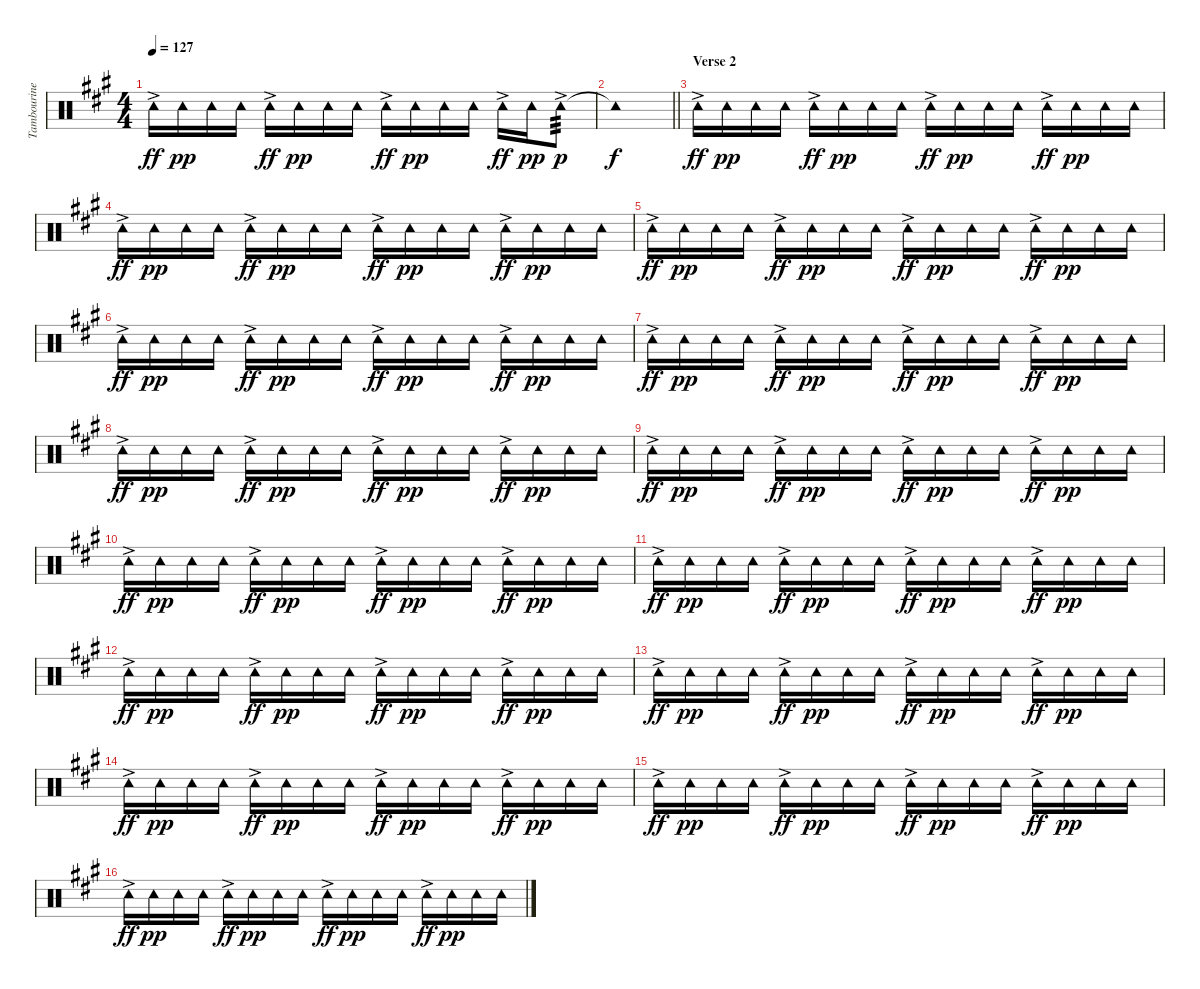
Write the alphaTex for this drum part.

\track ("Tambourine" "Tambourine") {instrument percussion}
\staff {score}
\articulation defaults
\ts (4 4)
\tempo 127
\clef neutral
\ks a "Tambourine (hit)"{ac}.16{dy ff} "Tambourine (hit)".16{dy pp} "Tambourine (hit)".16 "Tambourine (hit)".16 "Tambourine (hit)"{ac}.16{dy ff} "Tambourine (hit)".16{dy pp} "Tambourine (hit)".16 "Tambourine (hit)".16 "Tambourine (hit)"{ac}.16{dy ff} "Tambourine (hit)".16{dy pp} "Tambourine (hit)".16 "Tambourine (hit)".16 "Tambourine (hit)"{ac}.16{dy ff} "Tambourine (hit)".16{dy pp} "Tambourine (hit)"{ac}.8{tp 3 dy p}
|
\barLineRight lightlight "Tambourine (hit)"{t}.1{dy f}
|
\section ("" "Verse 2")
"Tambourine (hit)"{ac}.16{dy ff} "Tambourine (hit)".16{dy pp} "Tambourine (hit)".16 "Tambourine (hit)".16 "Tambourine (hit)"{ac}.16{dy ff} "Tambourine (hit)".16{dy pp} "Tambourine (hit)".16 "Tambourine (hit)".16 "Tambourine (hit)"{ac}.16{dy ff} "Tambourine (hit)".16{dy pp} "Tambourine (hit)".16 "Tambourine (hit)".16 "Tambourine (hit)"{ac}.16{dy ff} "Tambourine (hit)".16{dy pp} "Tambourine (hit)".16 "Tambourine (hit)".16 |
"Tambourine (hit)"{ac}.16{dy ff} "Tambourine (hit)".16{dy pp} "Tambourine (hit)".16 "Tambourine (hit)".16 "Tambourine (hit)"{ac}.16{dy ff} "Tambourine (hit)".16{dy pp} "Tambourine (hit)".16 "Tambourine (hit)".16 "Tambourine (hit)"{ac}.16{dy ff} "Tambourine (hit)".16{dy pp} "Tambourine (hit)".16 "Tambourine (hit)".16 "Tambourine (hit)"{ac}.16{dy ff} "Tambourine (hit)".16{dy pp} "Tambourine (hit)".16 "Tambourine (hit)".16 |
"Tambourine (hit)"{ac}.16{dy ff} "Tambourine (hit)".16{dy pp} "Tambourine (hit)".16 "Tambourine (hit)".16 "Tambourine (hit)"{ac}.16{dy ff} "Tambourine (hit)".16{dy pp} "Tambourine (hit)".16 "Tambourine (hit)".16 "Tambourine (hit)"{ac}.16{dy ff} "Tambourine (hit)".16{dy pp} "Tambourine (hit)".16 "Tambourine (hit)".16 "Tambourine (hit)"{ac}.16{dy ff} "Tambourine (hit)".16{dy pp} "Tambourine (hit)".16 "Tambourine (hit)".16 |
"Tambourine (hit)"{ac}.16{dy ff} "Tambourine (hit)".16{dy pp} "Tambourine (hit)".16 "Tambourine (hit)".16 "Tambourine (hit)"{ac}.16{dy ff} "Tambourine (hit)".16{dy pp} "Tambourine (hit)".16 "Tambourine (hit)".16 "Tambourine (hit)"{ac}.16{dy ff} "Tambourine (hit)".16{dy pp} "Tambourine (hit)".16 "Tambourine (hit)".16 "Tambourine (hit)"{ac}.16{dy ff} "Tambourine (hit)".16{dy pp} "Tambourine (hit)".16 "Tambourine (hit)".16 |
"Tambourine (hit)"{ac}.16{dy ff} "Tambourine (hit)".16{dy pp} "Tambourine (hit)".16 "Tambourine (hit)".16 "Tambourine (hit)"{ac}.16{dy ff} "Tambourine (hit)".16{dy pp} "Tambourine (hit)".16 "Tambourine (hit)".16 "Tambourine (hit)"{ac}.16{dy ff} "Tambourine (hit)".16{dy pp} "Tambourine (hit)".16 "Tambourine (hit)".16 "Tambourine (hit)"{ac}.16{dy ff} "Tambourine (hit)".16{dy pp} "Tambourine (hit)".16 "Tambourine (hit)".16 |
"Tambourine (hit)"{ac}.16{dy ff} "Tambourine (hit)".16{dy pp} "Tambourine (hit)".16 "Tambourine (hit)".16 "Tambourine (hit)"{ac}.16{dy ff} "Tambourine (hit)".16{dy pp} "Tambourine (hit)".16 "Tambourine (hit)".16 "Tambourine (hit)"{ac}.16{dy ff} "Tambourine (hit)".16{dy pp} "Tambourine (hit)".16 "Tambourine (hit)".16 "Tambourine (hit)"{ac}.16{dy ff} "Tambourine (hit)".16{dy pp} "Tambourine (hit)".16 "Tambourine (hit)".16 |
"Tambourine (hit)"{ac}.16{dy ff} "Tambourine (hit)".16{dy pp} "Tambourine (hit)".16 "Tambourine (hit)".16 "Tambourine (hit)"{ac}.16{dy ff} "Tambourine (hit)".16{dy pp} "Tambourine (hit)".16 "Tambourine (hit)".16 "Tambourine (hit)"{ac}.16{dy ff} "Tambourine (hit)".16{dy pp} "Tambourine (hit)".16 "Tambourine (hit)".16 "Tambourine (hit)"{ac}.16{dy ff} "Tambourine (hit)".16{dy pp} "Tambourine (hit)".16 "Tambourine (hit)".16 |
"Tambourine (hit)"{ac}.16{dy ff} "Tambourine (hit)".16{dy pp} "Tambourine (hit)".16 "Tambourine (hit)".16 "Tambourine (hit)"{ac}.16{dy ff} "Tambourine (hit)".16{dy pp} "Tambourine (hit)".16 "Tambourine (hit)".16 "Tambourine (hit)"{ac}.16{dy ff} "Tambourine (hit)".16{dy pp} "Tambourine (hit)".16 "Tambourine (hit)".16 "Tambourine (hit)"{ac}.16{dy ff} "Tambourine (hit)".16{dy pp} "Tambourine (hit)".16 "Tambourine (hit)".16 |
"Tambourine (hit)"{ac}.16{dy ff} "Tambourine (hit)".16{dy pp} "Tambourine (hit)".16 "Tambourine (hit)".16 "Tambourine (hit)"{ac}.16{dy ff} "Tambourine (hit)".16{dy pp} "Tambourine (hit)".16 "Tambourine (hit)".16 "Tambourine (hit)"{ac}.16{dy ff} "Tambourine (hit)".16{dy pp} "Tambourine (hit)".16 "Tambourine (hit)".16 "Tambourine (hit)"{ac}.16{dy ff} "Tambourine (hit)".16{dy pp} "Tambourine (hit)".16 "Tambourine (hit)".16 |
"Tambourine (hit)"{ac}.16{dy ff} "Tambourine (hit)".16{dy pp} "Tambourine (hit)".16 "Tambourine (hit)".16 "Tambourine (hit)"{ac}.16{dy ff} "Tambourine (hit)".16{dy pp} "Tambourine (hit)".16 "Tambourine (hit)".16 "Tambourine (hit)"{ac}.16{dy ff} "Tambourine (hit)".16{dy pp} "Tambourine (hit)".16 "Tambourine (hit)".16 "Tambourine (hit)"{ac}.16{dy ff} "Tambourine (hit)".16{dy pp} "Tambourine (hit)".16 "Tambourine (hit)".16 |
"Tambourine (hit)"{ac}.16{dy ff} "Tambourine (hit)".16{dy pp} "Tambourine (hit)".16 "Tambourine (hit)".16 "Tambourine (hit)"{ac}.16{dy ff} "Tambourine (hit)".16{dy pp} "Tambourine (hit)".16 "Tambourine (hit)".16 "Tambourine (hit)"{ac}.16{dy ff} "Tambourine (hit)".16{dy pp} "Tambourine (hit)".16 "Tambourine (hit)".16 "Tambourine (hit)"{ac}.16{dy ff} "Tambourine (hit)".16{dy pp} "Tambourine (hit)".16 "Tambourine (hit)".16 |
"Tambourine (hit)"{ac}.16{dy ff} "Tambourine (hit)".16{dy pp} "Tambourine (hit)".16 "Tambourine (hit)".16 "Tambourine (hit)"{ac}.16{dy ff} "Tambourine (hit)".16{dy pp} "Tambourine (hit)".16 "Tambourine (hit)".16 "Tambourine (hit)"{ac}.16{dy ff} "Tambourine (hit)".16{dy pp} "Tambourine (hit)".16 "Tambourine (hit)".16 "Tambourine (hit)"{ac}.16{dy ff} "Tambourine (hit)".16{dy pp} "Tambourine (hit)".16 "Tambourine (hit)".16 |
"Tambourine (hit)"{ac}.16{dy ff} "Tambourine (hit)".16{dy pp} "Tambourine (hit)".16 "Tambourine (hit)".16 "Tambourine (hit)"{ac}.16{dy ff} "Tambourine (hit)".16{dy pp} "Tambourine (hit)".16 "Tambourine (hit)".16 "Tambourine (hit)"{ac}.16{dy ff} "Tambourine (hit)".16{dy pp} "Tambourine (hit)".16 "Tambourine (hit)".16 "Tambourine (hit)"{ac}.16{dy ff} "Tambourine (hit)".16{dy pp} "Tambourine (hit)".16 "Tambourine (hit)".16 |
"Tambourine (hit)"{ac}.16{dy ff} "Tambourine (hit)".16{dy pp} "Tambourine (hit)".16 "Tambourine (hit)".16 "Tambourine (hit)"{ac}.16{dy ff} "Tambourine (hit)".16{dy pp} "Tambourine (hit)".16 "Tambourine (hit)".16 "Tambourine (hit)"{ac}.16{dy ff} "Tambourine (hit)".16{dy pp} "Tambourine (hit)".16 "Tambourine (hit)".16 "Tambourine (hit)"{ac}.16{dy ff} "Tambourine (hit)".16{dy pp} "Tambourine (hit)".16 "Tambourine (hit)".16
